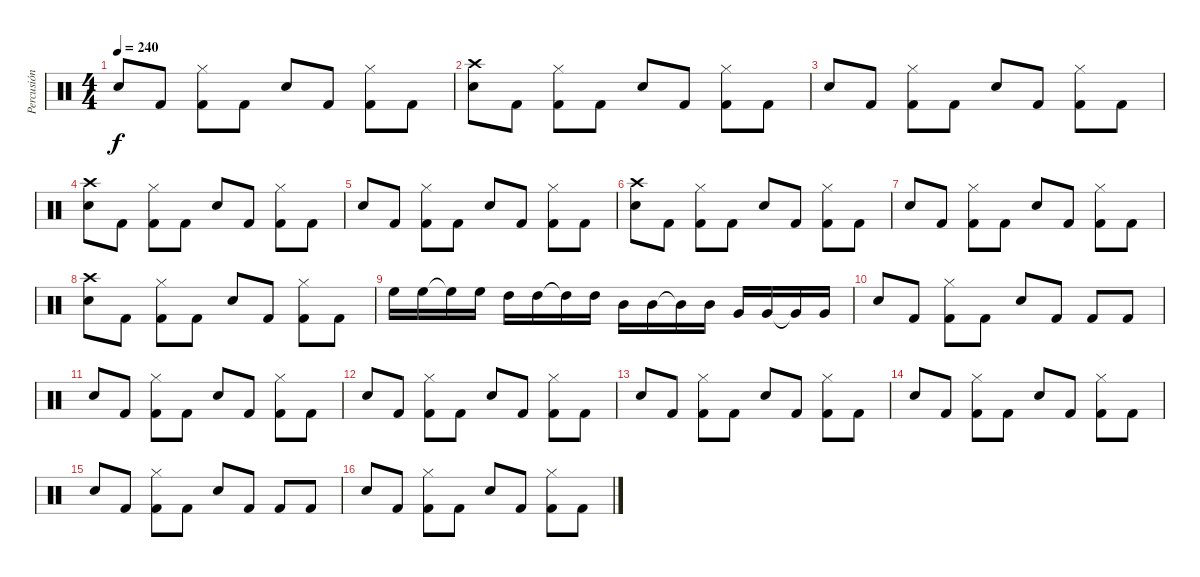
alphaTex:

\track ("Percusión" "Percusión") {instrument percussion}
\staff {score}
\articulation defaults
\ts (4 4)
\tempo 240
\clef neutral
\ks c "Snare (hit) 2".8{dy f} "Kick (hit) 2".8
("Kick (hit) 2" "Hi-Hat (closed)").8 "Kick (hit) 2".8 "Snare (hit) 2".8 "Kick (hit) 2".8 ("Kick (hit) 2" "Hi-Hat (closed)").8 "Kick (hit) 2".8 |
("Snare (hit) 2" "Crash high (hit)").8 "Kick (hit) 2".8 ("Kick (hit) 2" "Hi-Hat (closed)").8 "Kick (hit) 2".8 "Snare (hit) 2".8 "Kick (hit) 2".8 ("Kick (hit) 2" "Hi-Hat (closed)").8 "Kick (hit) 2".8 |
"Snare (hit) 2".8 "Kick (hit) 2".8 ("Kick (hit) 2" "Hi-Hat (closed)").8 "Kick (hit) 2".8 "Snare (hit) 2".8 "Kick (hit) 2".8 ("Kick (hit) 2" "Hi-Hat (closed)").8 "Kick (hit) 2".8 |
("Snare (hit) 2" "Crash high (hit)").8 "Kick (hit) 2".8 ("Kick (hit) 2" "Hi-Hat (closed)").8 "Kick (hit) 2".8 "Snare (hit) 2".8 "Kick (hit) 2".8 ("Kick (hit) 2" "Hi-Hat (closed)").8 "Kick (hit) 2".8 |
"Snare (hit) 2".8 "Kick (hit) 2".8 ("Kick (hit) 2" "Hi-Hat (closed)").8 "Kick (hit) 2".8 "Snare (hit) 2".8 "Kick (hit) 2".8 ("Kick (hit) 2" "Hi-Hat (closed)").8 "Kick (hit) 2".8 |
("Snare (hit) 2" "Crash high (hit)").8 "Kick (hit) 2".8 ("Kick (hit) 2" "Hi-Hat (closed)").8 "Kick (hit) 2".8 "Snare (hit) 2".8 "Kick (hit) 2".8 ("Kick (hit) 2" "Hi-Hat (closed)").8 "Kick (hit) 2".8 |
"Snare (hit) 2".8 "Kick (hit) 2".8 ("Kick (hit) 2" "Hi-Hat (closed)").8 "Kick (hit) 2".8 "Snare (hit) 2".8 "Kick (hit) 2".8 ("Kick (hit) 2" "Hi-Hat (closed)").8 "Kick (hit) 2".8 |
("Snare (hit) 2" "Crash high (hit)").8 "Kick (hit) 2".8 ("Kick (hit) 2" "Hi-Hat (closed)").8 "Kick (hit) 2".8 "Snare (hit) 2".8 "Kick (hit) 2".8 ("Kick (hit) 2" "Hi-Hat (closed)").8 "Kick (hit) 2".8 |
"High Floor Tom (hit)".16 "High Floor Tom (hit)".16 "High Floor Tom (hit)"{t}.16 "High Floor Tom (hit)".16 "High Tom (hit)".16 "High Tom (hit)".16 "High Tom (hit)"{t}.16 "High Tom (hit)".16 "Mid Tom (hit)".16 "Mid Tom (hit)".16 "Mid Tom (hit)"{t}.16 "Mid Tom (hit)".16 "Very Low Tom (hit)".16 "Very Low Tom (hit)".16 "Very Low Tom (hit)"{t}.16 "Very Low Tom (hit)".16 |
"Snare (hit) 2".8 "Kick (hit) 2".8 ("Kick (hit) 2" "Hi-Hat (closed)").8 "Kick (hit) 2".8 "Snare (hit) 2".8 "Kick (hit) 2".8 "Kick (hit) 2".8 "Kick (hit) 2".8 |
"Snare (hit) 2".8 "Kick (hit) 2".8 ("Kick (hit) 2" "Hi-Hat (closed)").8 "Kick (hit) 2".8 "Snare (hit) 2".8 "Kick (hit) 2".8 ("Kick (hit) 2" "Hi-Hat (closed)").8 "Kick (hit) 2".8 |
"Snare (hit) 2".8 "Kick (hit) 2".8 ("Kick (hit) 2" "Hi-Hat (closed)").8 "Kick (hit) 2".8 "Snare (hit) 2".8 "Kick (hit) 2".8 ("Kick (hit) 2" "Hi-Hat (closed)").8 "Kick (hit) 2".8 |
"Snare (hit) 2".8 "Kick (hit) 2".8 ("Kick (hit) 2" "Hi-Hat (closed)").8 "Kick (hit) 2".8 "Snare (hit) 2".8 "Kick (hit) 2".8 ("Kick (hit) 2" "Hi-Hat (closed)").8 "Kick (hit) 2".8 |
"Snare (hit) 2".8 "Kick (hit) 2".8 ("Kick (hit) 2" "Hi-Hat (closed)").8 "Kick (hit) 2".8 "Snare (hit) 2".8 "Kick (hit) 2".8 ("Kick (hit) 2" "Hi-Hat (closed)").8 "Kick (hit) 2".8 |
"Snare (hit) 2".8 "Kick (hit) 2".8 ("Kick (hit) 2" "Hi-Hat (closed)").8 "Kick (hit) 2".8 "Snare (hit) 2".8 "Kick (hit) 2".8 "Kick (hit) 2".8 "Kick (hit) 2".8 |
"Snare (hit) 2".8 "Kick (hit) 2".8 ("Kick (hit) 2" "Hi-Hat (closed)").8 "Kick (hit) 2".8 "Snare (hit) 2".8 "Kick (hit) 2".8 ("Kick (hit) 2" "Hi-Hat (closed)").8 "Kick (hit) 2".8
